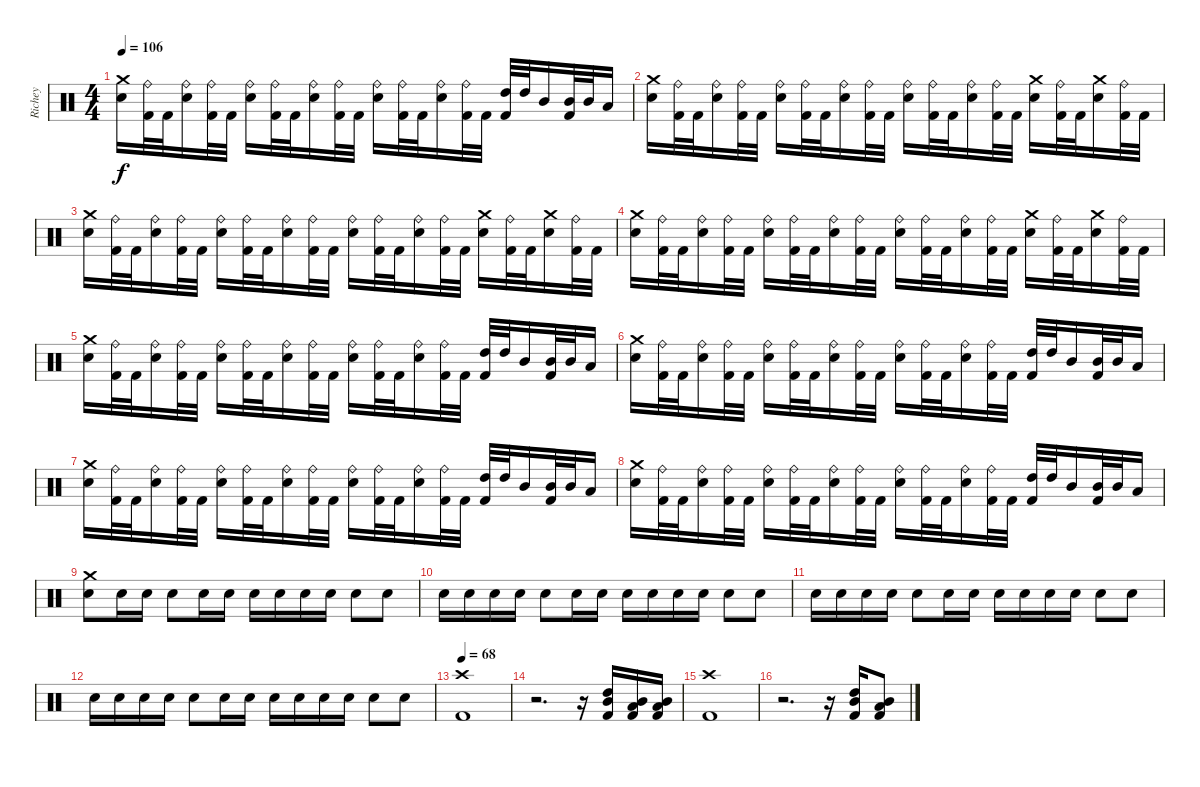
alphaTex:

\track ("Richey" "Richey") {instrument percussion}
\staff {score}
\articulation defaults
\ts (4 4)
\tempo 106
\clef neutral
\ks c
("Crash medium (hit)" "Snare (hit) 2").16{dy f} ("Ride (bell)" "Kick (hit) 2").32 "Kick (hit) 2".32 ("Ride (bell)" "Snare (hit) 2").16 ("Ride (bell)" "Kick (hit) 2").32 "Kick (hit) 2".32 ("Ride (bell)" "Snare (hit) 2").16 ("Ride (bell)" "Kick (hit) 2").32 "Kick (hit) 2".32 ("Ride (bell)" "Snare (hit) 2").16 ("Ride (bell)" "Kick (hit) 2").32 "Kick (hit) 2".32 ("Ride (bell)" "Snare (hit) 2").16 ("Ride (bell)" "Kick (hit) 2").32 "Kick (hit) 2".32 ("Ride (bell)" "Snare (hit) 2").16 ("Ride (bell)" "Kick (hit) 2").32 "Kick (hit) 2".32 ("High Tom (hit)" "Kick (hit) 2").32 "High Tom (hit)".32 "Mid Tom (hit)".16 ("Mid Tom (hit)" "Kick (hit) 2").32 "Mid Tom (hit)".32 "Low Tom (hit)".16 |
("Crash medium (hit)" "Snare (hit) 2").16 ("Ride (bell)" "Kick (hit) 2").32 "Kick (hit) 2".32 ("Ride (bell)" "Snare (hit) 2").16 ("Ride (bell)" "Kick (hit) 2").32 "Kick (hit) 2".32 ("Ride (bell)" "Snare (hit) 2").16 ("Ride (bell)" "Kick (hit) 2").32 "Kick (hit) 2".32 ("Ride (bell)" "Snare (hit) 2").16 ("Ride (bell)" "Kick (hit) 2").32 "Kick (hit) 2".32 ("Ride (bell)" "Snare (hit) 2").16 ("Ride (bell)" "Kick (hit) 2").32 "Kick (hit) 2".32 ("Ride (bell)" "Snare (hit) 2").16 ("Ride (bell)" "Kick (hit) 2").32 "Kick (hit) 2".32 ("Crash medium (hit)" "Snare (hit) 2").16 ("Ride (bell)" "Kick (hit) 2").32 "Kick (hit) 2".32 ("Crash medium (hit)" "Snare (hit) 2").16 ("Ride (bell)" "Kick (hit) 2").32 "Kick (hit) 2".32 |
("Crash medium (hit)" "Snare (hit) 2").16 ("Ride (bell)" "Kick (hit) 2").32 "Kick (hit) 2".32 ("Ride (bell)" "Snare (hit) 2").16 ("Ride (bell)" "Kick (hit) 2").32 "Kick (hit) 2".32 ("Ride (bell)" "Snare (hit) 2").16 ("Ride (bell)" "Kick (hit) 2").32 "Kick (hit) 2".32 ("Ride (bell)" "Snare (hit) 2").16 ("Ride (bell)" "Kick (hit) 2").32 "Kick (hit) 2".32 ("Ride (bell)" "Snare (hit) 2").16 ("Ride (bell)" "Kick (hit) 2").32 "Kick (hit) 2".32 ("Ride (bell)" "Snare (hit) 2").16 ("Ride (bell)" "Kick (hit) 2").32 "Kick (hit) 2".32 ("Crash medium (hit)" "Snare (hit) 2").16 ("Ride (bell)" "Kick (hit) 2").32 "Kick (hit) 2".32 ("Crash medium (hit)" "Snare (hit) 2").16 ("Ride (bell)" "Kick (hit) 2").32 "Kick (hit) 2".32 |
("Crash medium (hit)" "Snare (hit) 2").16 ("Ride (bell)" "Kick (hit) 2").32 "Kick (hit) 2".32 ("Ride (bell)" "Snare (hit) 2").16 ("Ride (bell)" "Kick (hit) 2").32 "Kick (hit) 2".32 ("Ride (bell)" "Snare (hit) 2").16 ("Ride (bell)" "Kick (hit) 2").32 "Kick (hit) 2".32 ("Ride (bell)" "Snare (hit) 2").16 ("Ride (bell)" "Kick (hit) 2").32 "Kick (hit) 2".32 ("Ride (bell)" "Snare (hit) 2").16 ("Ride (bell)" "Kick (hit) 2").32 "Kick (hit) 2".32 ("Ride (bell)" "Snare (hit) 2").16 ("Ride (bell)" "Kick (hit) 2").32 "Kick (hit) 2".32 ("Crash medium (hit)" "Snare (hit) 2").16 ("Ride (bell)" "Kick (hit) 2").32 "Kick (hit) 2".32 ("Crash medium (hit)" "Snare (hit) 2").16 ("Ride (bell)" "Kick (hit) 2").32 "Kick (hit) 2".32 |
("Crash medium (hit)" "Snare (hit) 2").16 ("Ride (bell)" "Kick (hit) 2").32 "Kick (hit) 2".32 ("Ride (bell)" "Snare (hit) 2").16 ("Ride (bell)" "Kick (hit) 2").32 "Kick (hit) 2".32 ("Ride (bell)" "Snare (hit) 2").16 ("Ride (bell)" "Kick (hit) 2").32 "Kick (hit) 2".32 ("Ride (bell)" "Snare (hit) 2").16 ("Ride (bell)" "Kick (hit) 2").32 "Kick (hit) 2".32 ("Ride (bell)" "Snare (hit) 2").16 ("Ride (bell)" "Kick (hit) 2").32 "Kick (hit) 2".32 ("Ride (bell)" "Snare (hit) 2").16 ("Ride (bell)" "Kick (hit) 2").32 "Kick (hit) 2".32 ("High Tom (hit)" "Kick (hit) 2").32 "High Tom (hit)".32 "Mid Tom (hit)".16 ("Mid Tom (hit)" "Kick (hit) 2").32 "Mid Tom (hit)".32 "Low Tom (hit)".16 |
("Crash medium (hit)" "Snare (hit) 2").16 ("Ride (bell)" "Kick (hit) 2").32 "Kick (hit) 2".32 ("Ride (bell)" "Snare (hit) 2").16 ("Ride (bell)" "Kick (hit) 2").32 "Kick (hit) 2".32 ("Ride (bell)" "Snare (hit) 2").16 ("Ride (bell)" "Kick (hit) 2").32 "Kick (hit) 2".32 ("Ride (bell)" "Snare (hit) 2").16 ("Ride (bell)" "Kick (hit) 2").32 "Kick (hit) 2".32 ("Ride (bell)" "Snare (hit) 2").16 ("Ride (bell)" "Kick (hit) 2").32 "Kick (hit) 2".32 ("Ride (bell)" "Snare (hit) 2").16 ("Ride (bell)" "Kick (hit) 2").32 "Kick (hit) 2".32 ("High Tom (hit)" "Kick (hit) 2").32 "High Tom (hit)".32 "Mid Tom (hit)".16 ("Mid Tom (hit)" "Kick (hit) 2").32 "Mid Tom (hit)".32 "Low Tom (hit)".16 |
("Crash medium (hit)" "Snare (hit) 2").16 ("Ride (bell)" "Kick (hit) 2").32 "Kick (hit) 2".32 ("Ride (bell)" "Snare (hit) 2").16 ("Ride (bell)" "Kick (hit) 2").32 "Kick (hit) 2".32 ("Ride (bell)" "Snare (hit) 2").16 ("Ride (bell)" "Kick (hit) 2").32 "Kick (hit) 2".32 ("Ride (bell)" "Snare (hit) 2").16 ("Ride (bell)" "Kick (hit) 2").32 "Kick (hit) 2".32 ("Ride (bell)" "Snare (hit) 2").16 ("Ride (bell)" "Kick (hit) 2").32 "Kick (hit) 2".32 ("Ride (bell)" "Snare (hit) 2").16 ("Ride (bell)" "Kick (hit) 2").32 "Kick (hit) 2".32 ("High Tom (hit)" "Kick (hit) 2").32 "High Tom (hit)".32 "Mid Tom (hit)".16 ("Mid Tom (hit)" "Kick (hit) 2").32 "Mid Tom (hit)".32 "Low Tom (hit)".16 |
("Crash medium (hit)" "Snare (hit) 2").16 ("Ride (bell)" "Kick (hit) 2").32 "Kick (hit) 2".32 ("Ride (bell)" "Snare (hit) 2").16 ("Ride (bell)" "Kick (hit) 2").32 "Kick (hit) 2".32 ("Ride (bell)" "Snare (hit) 2").16 ("Ride (bell)" "Kick (hit) 2").32 "Kick (hit) 2".32 ("Ride (bell)" "Snare (hit) 2").16 ("Ride (bell)" "Kick (hit) 2").32 "Kick (hit) 2".32 ("Ride (bell)" "Snare (hit) 2").16 ("Ride (bell)" "Kick (hit) 2").32 "Kick (hit) 2".32 ("Ride (bell)" "Snare (hit) 2").16 ("Ride (bell)" "Kick (hit) 2").32 "Kick (hit) 2".32 ("High Tom (hit)" "Kick (hit) 2").32 "High Tom (hit)".32 "Mid Tom (hit)".16 ("Mid Tom (hit)" "Kick (hit) 2").32 "Mid Tom (hit)".32 "Low Tom (hit)".16 |
("Crash medium (hit)" "Snare (hit) 2").8 "Snare (hit) 2".16 "Snare (hit) 2".16 "Snare (hit) 2".8 "Snare (hit) 2".16 "Snare (hit) 2".16 "Snare (hit) 2".16 "Snare (hit) 2".16 "Snare (hit) 2".16 "Snare (hit) 2".16 "Snare (hit) 2".8 "Snare (hit) 2".8 |
"Snare (hit) 2".16 "Snare (hit) 2".16 "Snare (hit) 2".16 "Snare (hit) 2".16 "Snare (hit) 2".8 "Snare (hit) 2".16 "Snare (hit) 2".16 "Snare (hit) 2".16 "Snare (hit) 2".16 "Snare (hit) 2".16 "Snare (hit) 2".16 "Snare (hit) 2".8 "Snare (hit) 2".8 |
"Snare (hit) 2".16 "Snare (hit) 2".16 "Snare (hit) 2".16 "Snare (hit) 2".16 "Snare (hit) 2".8 "Snare (hit) 2".16 "Snare (hit) 2".16 "Snare (hit) 2".16 "Snare (hit) 2".16 "Snare (hit) 2".16 "Snare (hit) 2".16 "Snare (hit) 2".8 "Snare (hit) 2".8 |
"Snare (hit) 2".16 "Snare (hit) 2".16 "Snare (hit) 2".16 "Snare (hit) 2".16 "Snare (hit) 2".8 "Snare (hit) 2".16 "Snare (hit) 2".16 "Snare (hit) 2".16 "Snare (hit) 2".16 "Snare (hit) 2".16 "Snare (hit) 2".16 "Snare (hit) 2".8 "Snare (hit) 2".8 |
\tempo 68
("Crash high (hit)" "Kick (hit) 2").1 |
r.2{d} r.16 ("High Tom (hit)" "Mid Tom (hit)" "Kick (hit) 2").16 ("Mid Tom (hit)" "Low Tom (hit)" "Kick (hit) 2").16 ("Mid Tom (hit)" "Low Tom (hit)" "Kick (hit) 2").16 |
("Crash high (hit)" "Kick (hit) 2").1 |
r.2{d} r.16 ("High Tom (hit)" "Mid Tom (hit)" "Kick (hit) 2").16 ("Mid Tom (hit)" "Low Tom (hit)" "Kick (hit) 2").8
